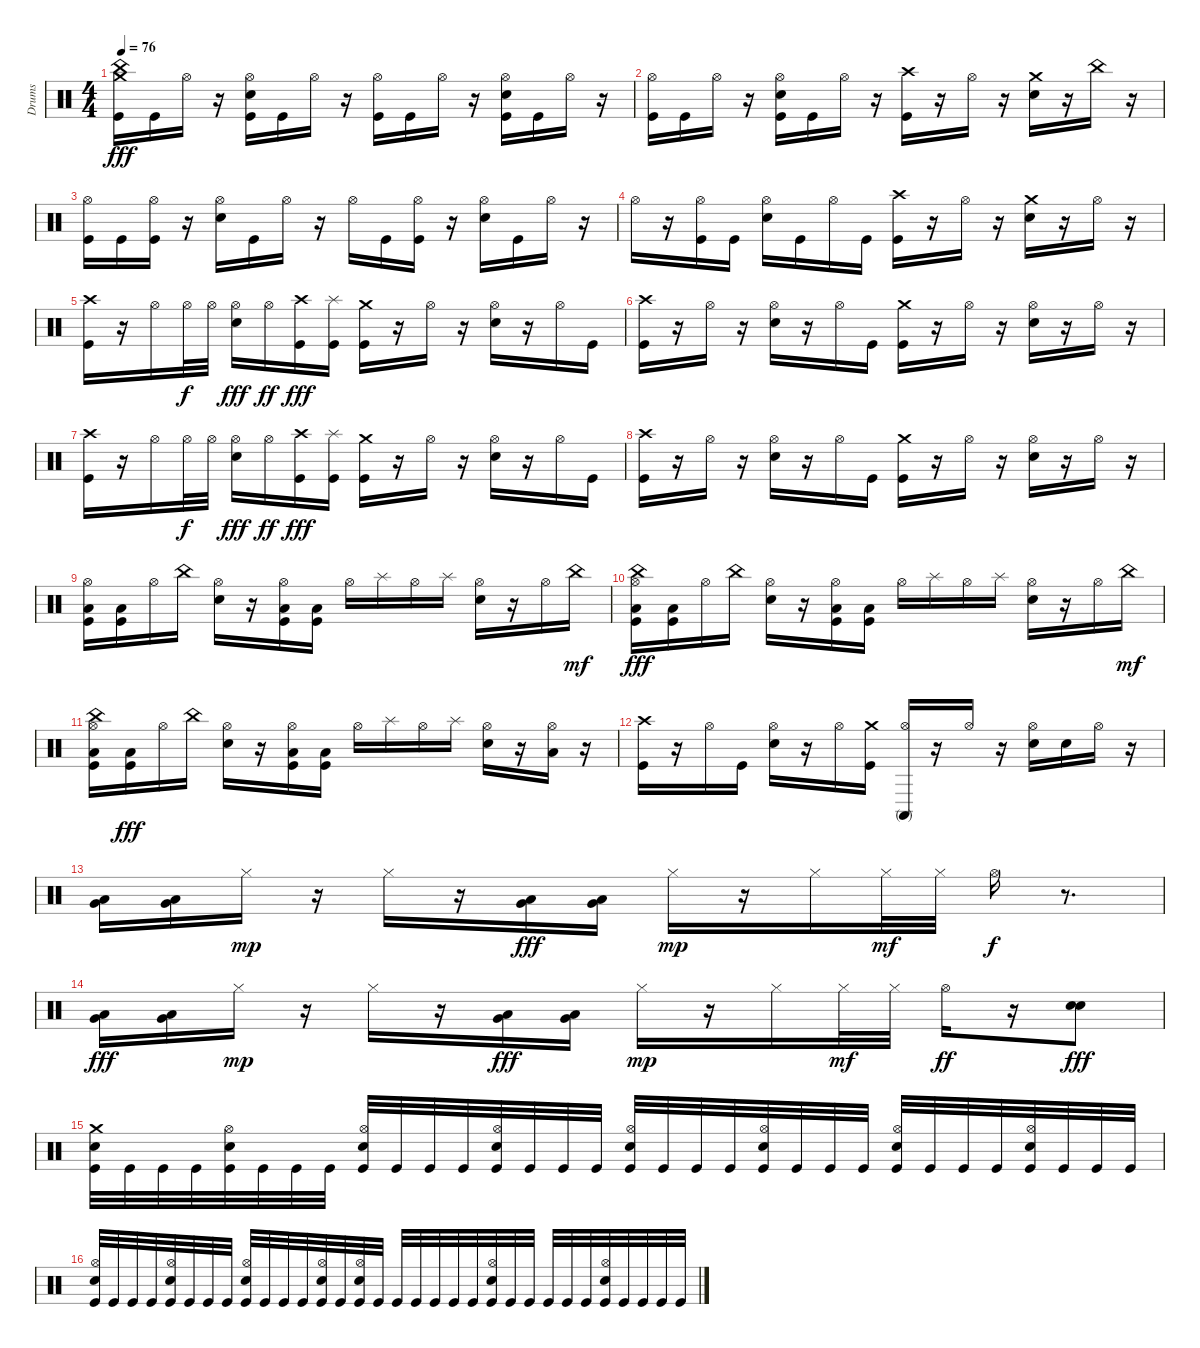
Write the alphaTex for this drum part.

\track ("Drums" "Drums") {instrument percussion}
\staff {score}
\articulation defaults
\ts (4 4)
\tempo 76
\clef neutral
\ks c
("China (hit)" "Crash medium (hit)" "Kick (hit)").16{dy fff} "Kick (hit)".16 "Hi-Hat (open)".16 r.16 ("Kick (hit)" "Hi-Hat (open)" "Electric Snare (hit)").16 "Kick (hit)".16 "Hi-Hat (open)".16 r.16 ("Kick (hit)" "Hi-Hat (open)").16 "Kick (hit)".16 "Hi-Hat (open)".16 r.16 ("Electric Snare (hit)" "Kick (hit)" "Hi-Hat (open)").16 "Kick (hit)".16 "Hi-Hat (open)".16 r.16 |
("Hi-Hat (open)" "Kick (hit)").16 "Kick (hit)".16 "Hi-Hat (open)".16 r.16 ("Hi-Hat (open)" "Kick (hit)" "Electric Snare (hit)").16 "Kick (hit)".16 "Hi-Hat (open)".16 r.16 ("Crash high (hit)" "Kick (hit)").16 r.16 "Hi-Hat (open)".16 r.16 ("Crash medium (hit)" "Electric Snare (hit)").16 r.16 "China (hit)".16 r.16 |
("Kick (hit)" "Hi-Hat (open)").16 "Kick (hit)".16 ("Kick (hit)" "Hi-Hat (open)").16 r.16 ("Electric Snare (hit)" "Hi-Hat (open)").16 "Kick (hit)".16 "Hi-Hat (open)".16 r.16 "Hi-Hat (open)".16 "Kick (hit)".16 ("Kick (hit)" "Hi-Hat (open)").16 r.16 ("Electric Snare (hit)" "Hi-Hat (open)").16 "Kick (hit)".16 "Hi-Hat (open)".16 r.16 |
"Hi-Hat (open)".16 r.16 ("Kick (hit)" "Hi-Hat (open)").16 "Kick (hit)".16 ("Electric Snare (hit)" "Hi-Hat (open)").16 "Kick (hit)".16 "Hi-Hat (open)".16 "Kick (hit)".16 ("Kick (hit)" "Crash high (hit)").16 r.16 "Hi-Hat (open)".16 r.16 ("Crash medium (hit)" "Electric Snare (hit)").16 r.16 "Hi-Hat (open)".16 r.16 |
("Crash high (hit)" "Kick (hit)").16 r.16 "Hi-Hat (open)".16 "Hi-Hat (open)".32{dy f} "Hi-Hat (open)".32 ("Hi-Hat (open)" "Electric Snare (hit)").16{dy fff} "Hi-Hat (open)".16{dy ff} ("Crash high (hit)" "Kick (hit)").16{dy fff} ("Splash (hit)" "Kick (hit)").16 ("Crash medium (hit)" "Kick (hit)").16 r.16 "Hi-Hat (open)".16 r.16 ("Hi-Hat (open)" "Electric Snare (hit)").16 r.16 "Hi-Hat (open)".16 "Kick (hit)".16 |
("Crash high (hit)" "Kick (hit)").16 r.16 "Hi-Hat (open)".16 r.16 ("Hi-Hat (open)" "Electric Snare (hit)").16 r.16 "Hi-Hat (open)".16 "Kick (hit)".16 ("Crash medium (hit)" "Kick (hit)").16 r.16 "Hi-Hat (open)".16 r.16 ("Hi-Hat (open)" "Electric Snare (hit)").16 r.16 "Hi-Hat (open)".16 r.16 |
("Kick (hit)" "Crash high (hit)").16 r.16 "Hi-Hat (open)".16 "Hi-Hat (open)".32{dy f} "Hi-Hat (open)".32 ("Electric Snare (hit)" "Hi-Hat (open)").16{dy fff} "Hi-Hat (open)".16{dy ff} ("Kick (hit)" "Crash high (hit)").16{dy fff} ("Splash (hit)" "Kick (hit)").16 ("Kick (hit)" "Crash medium (hit)").16 r.16 "Hi-Hat (open)".16 r.16 ("Electric Snare (hit)" "Hi-Hat (open)").16 r.16 "Hi-Hat (open)".16 "Kick (hit)".16 |
("Kick (hit)" "Crash high (hit)").16 r.16 "Hi-Hat (open)".16 r.16 ("Electric Snare (hit)" "Hi-Hat (open)").16 r.16 "Hi-Hat (open)".16 "Kick (hit)".16 ("Kick (hit)" "Crash medium (hit)").16 r.16 "Hi-Hat (open)".16 r.16 ("Electric Snare (hit)" "Hi-Hat (open)").16 r.16 "Hi-Hat (open)".16 r.16 |
("Low Floor Tom (hit)" "Hi-Hat (open)" "Kick (hit)").16 ("Low Floor Tom (hit)" "Kick (hit)").16 "Hi-Hat (open)".16 "China (hit)".16 ("Hi-Hat (open)" "Electric Snare (hit)").16 r.16 ("Low Floor Tom (hit)" "Hi-Hat (open)" "Kick (hit)").16 ("Low Floor Tom (hit)" "Kick (hit)").16 "Hi-Hat (open)".16 "Splash (hit)".16 "Hi-Hat (open)".16 "Splash (hit)".16 ("Hi-Hat (open)" "Electric Snare (hit)").16 r.16 "Hi-Hat (open)".16 "China (hit)".16{dy mf} |
("China (hit)" "Kick (hit)" "Low Floor Tom (hit)" "Hi-Hat (open)").16{dy fff} ("Kick (hit)" "Low Floor Tom (hit)").16 "Hi-Hat (open)".16 "China (hit)".16 ("Electric Snare (hit)" "Hi-Hat (open)").16 r.16 ("Kick (hit)" "Low Floor Tom (hit)" "Hi-Hat (open)").16 ("Kick (hit)" "Low Floor Tom (hit)").16 "Hi-Hat (open)".16 "Splash (hit)".16 "Hi-Hat (open)".16 "Splash (hit)".16 ("Electric Snare (hit)" "Hi-Hat (open)").16 r.16 "Hi-Hat (open)".16 "China (hit)".16{dy mf} |
("Kick (hit)" "Low Floor Tom (hit)" "Hi-Hat (open)" "China (hit)").16 ("Kick (hit)" "Low Floor Tom (hit)").16{dy fff} "Hi-Hat (open)".16 "China (hit)".16 ("Electric Snare (hit)" "Hi-Hat (open)").16 r.16 ("Kick (hit)" "Low Floor Tom (hit)" "Hi-Hat (open)").16 ("Kick (hit)" "Low Floor Tom (hit)").16 "Hi-Hat (open)".16 "Splash (hit)".16 "Hi-Hat (open)".16 "Splash (hit)".16 ("Electric Snare (hit)" "Hi-Hat (open)").16 r.16 ("Low Floor Tom (hit)" "Hi-Hat (open)").16 r.16 |
("Crash high (hit)" "Kick (hit)").16 r.16 "Hi-Hat (open)".16 "Kick (hit)".16 ("Hi-Hat (open)" "Electric Snare (hit)").16 r.16 "Hi-Hat (open)".16 ("Crash medium (hit)" "Kick (hit)").16 ("Conga high (mute)" "Hi-Hat (open)").16 r.16 "Hi-Hat (open)".16 r.16 ("Electric Snare (hit)" "Hi-Hat (open)").16 "Electric Snare (hit)".16 "Hi-Hat (open)".16 r.16 |
("Very Low Tom (hit)" "Low Floor Tom (hit)").16 ("Very Low Tom (hit)" "Low Floor Tom (hit)").16 "Hi-Hat (closed)".16{dy mp} r.16 "Hi-Hat (closed)".16 r.16 ("Very Low Tom (hit)" "Low Floor Tom (hit)").16{dy fff} ("Very Low Tom (hit)" "Low Floor Tom (hit)").16 "Hi-Hat (closed)".16{dy mp} r.16 "Hi-Hat (closed)".16 "Hi-Hat (closed)".32{dy mf} "Hi-Hat (closed)".32 "Hi-Hat (open)".16{dy f} r.8{d} |
("Low Floor Tom (hit)" "Very Low Tom (hit)").16{dy fff} ("Low Floor Tom (hit)" "Very Low Tom (hit)").16 "Hi-Hat (closed)".16{dy mp} r.16 "Hi-Hat (closed)".16 r.16 ("Low Floor Tom (hit)" "Very Low Tom (hit)").16{dy fff} ("Low Floor Tom (hit)" "Very Low Tom (hit)").16 "Hi-Hat (closed)".16{dy mp} r.16 "Hi-Hat (closed)".16 "Hi-Hat (closed)".32{dy mf} "Hi-Hat (closed)".32 "Hi-Hat (open)".16{dy ff} r.16 ("Electric Snare (hit)" "Electric Snare (hit)").8{dy fff} |
("Crash medium (hit)" "Electric Snare (hit)" "Kick (hit)").32 "Kick (hit)".32 "Kick (hit)".32 "Kick (hit)".32 ("Hi-Hat (open)" "Electric Snare (hit)" "Kick (hit)").32 "Kick (hit)".32 "Kick (hit)".32 "Kick (hit)".32 ("Hi-Hat (open)" "Electric Snare (hit)" "Kick (hit)").32 "Kick (hit)".32 "Kick (hit)".32 "Kick (hit)".32 ("Hi-Hat (open)" "Electric Snare (hit)" "Kick (hit)").32 "Kick (hit)".32 "Kick (hit)".32 "Kick (hit)".32 ("Hi-Hat (open)" "Electric Snare (hit)" "Kick (hit)").32 "Kick (hit)".32 "Kick (hit)".32 "Kick (hit)".32 ("Hi-Hat (open)" "Electric Snare (hit)" "Kick (hit)").32 "Kick (hit)".32 "Kick (hit)".32 "Kick (hit)".32 ("Hi-Hat (open)" "Electric Snare (hit)" "Kick (hit)").32 "Kick (hit)".32 "Kick (hit)".32 "Kick (hit)".32 ("Hi-Hat (open)" "Electric Snare (hit)" "Kick (hit)").32 "Kick (hit)".32 "Kick (hit)".32 "Kick (hit)".32 |
("Hi-Hat (open)" "Electric Snare (hit)" "Kick (hit)").32 "Kick (hit)".32 "Kick (hit)".32 "Kick (hit)".32 ("Hi-Hat (open)" "Electric Snare (hit)" "Kick (hit)").32 "Kick (hit)".32 "Kick (hit)".32 "Kick (hit)".32 ("Hi-Hat (open)" "Electric Snare (hit)" "Kick (hit)").32 "Kick (hit)".32 "Kick (hit)".32 "Kick (hit)".32 ("Hi-Hat (open)" "Electric Snare (hit)" "Kick (hit)").32 "Kick (hit)".32 ("Hi-Hat (open)" "Electric Snare (hit)" "Kick (hit)").32 "Kick (hit)".32 "Kick (hit)".32 "Kick (hit)".32 "Kick (hit)".32 "Kick (hit)".32 "Kick (hit)".32 ("Electric Snare (hit)" "Hi-Hat (open)" "Kick (hit)").32 "Kick (hit)".32 "Kick (hit)".32 "Kick (hit)".32 "Kick (hit)".32 "Kick (hit)".32 ("Hi-Hat (open)" "Electric Snare (hit)" "Kick (hit)").32 "Kick (hit)".32 "Kick (hit)".32 "Kick (hit)".32 "Kick (hit)".32
